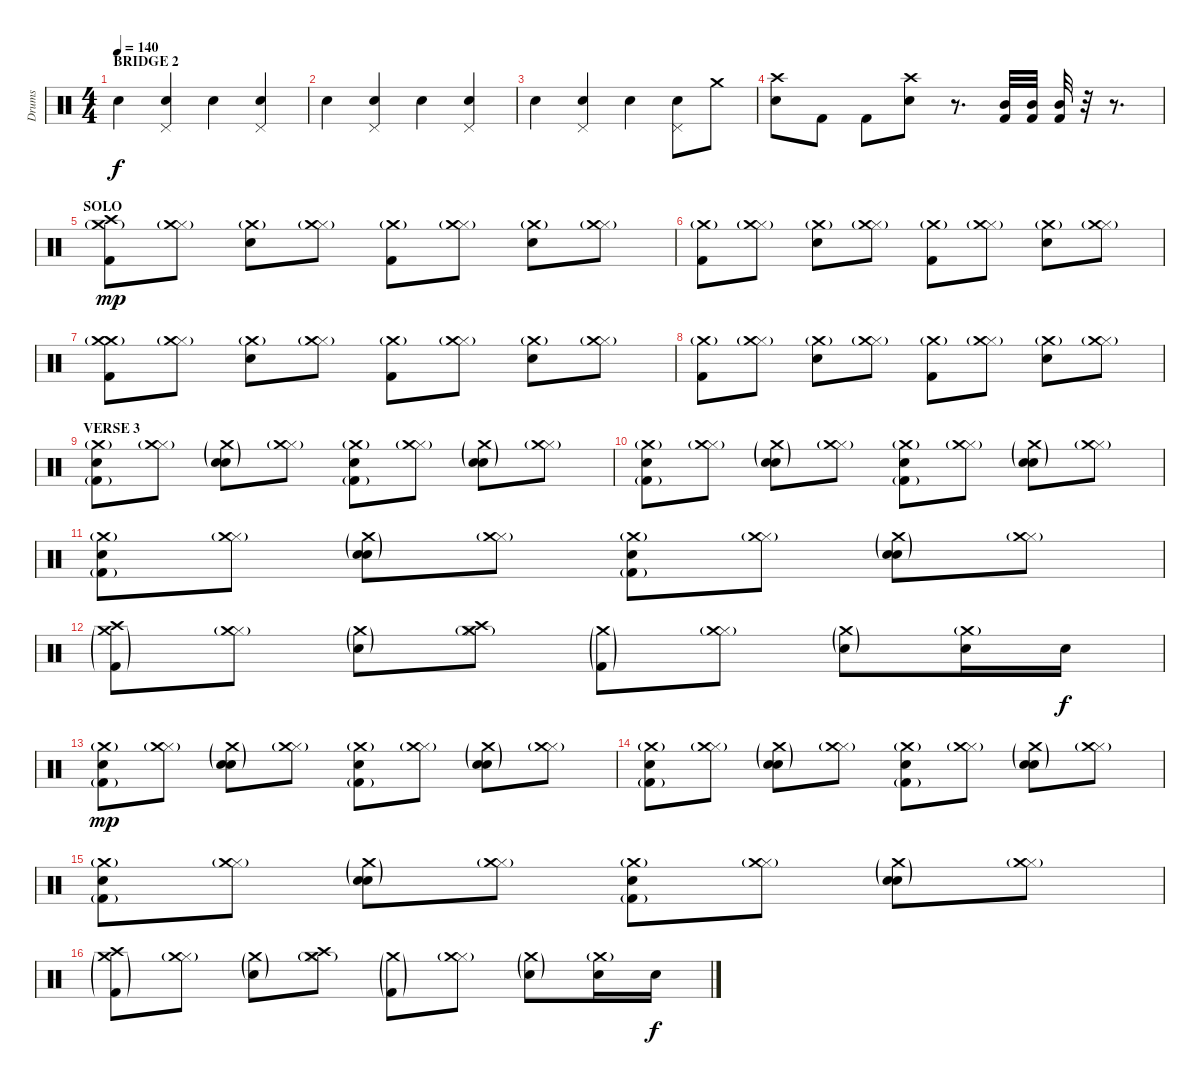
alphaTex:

\track ("Drums" "Drums") {instrument percussion}
\staff {score}
\articulation defaults
\ts (4 4)
\section ("" "BRIDGE 2")
\tempo 140
\clef neutral
\ks c "Hand Clap (hit)".4{dy f}
("Hand Clap (hit)" "Pedal Hi-Hat (hit)").4 "Hand Clap (hit)".4 ("Hand Clap (hit)" "Pedal Hi-Hat (hit)").4 |
"Hand Clap (hit)".4 ("Hand Clap (hit)" "Pedal Hi-Hat (hit)").4 "Hand Clap (hit)".4 ("Hand Clap (hit)" "Pedal Hi-Hat (hit)").4 |
"Hand Clap (hit)".4 ("Hand Clap (hit)" "Pedal Hi-Hat (hit)").4 "Hand Clap (hit)".4 ("Hand Clap (hit)" "Pedal Hi-Hat (hit)").8 "Crash medium (hit)".8 |
("Crash high (hit)" "Electric Snare (hit)").8 "Kick (hit) 2".8 "Kick (hit) 2".8 ("Crash high (hit)" "Electric Snare (hit)").8 r.8{d} ("Kick (hit) 2" "Mid Tom (hit)").32 ("Kick (hit) 2" "Mid Tom (hit)").32 ("Kick (hit) 2" "Mid Tom (hit)").32 r.32 r.8{d} |
\section ("" "SOLO")
("Kick (hit) 2" "Crash medium (hit)"{g} "Crash high (hit)").8{dy mp} ("Hi-Hat (closed)" "Crash medium (hit)"{g}).8 ("Electric Snare (hit)" "Crash medium (hit)"{g}).8 ("Hi-Hat (closed)" "Crash medium (hit)"{g}).8 ("Kick (hit) 2" "Crash medium (hit)"{g}).8 ("Hi-Hat (closed)" "Crash medium (hit)"{g}).8 ("Electric Snare (hit)" "Crash medium (hit)"{g}).8 ("Hi-Hat (closed)" "Crash medium (hit)"{g}).8 |
("Kick (hit) 2" "Crash medium (hit)"{g}).8 ("Hi-Hat (closed)" "Crash medium (hit)"{g}).8 ("Electric Snare (hit)" "Crash medium (hit)"{g}).8 ("Hi-Hat (closed)" "Crash medium (hit)"{g}).8 ("Kick (hit) 2" "Crash medium (hit)"{g}).8 ("Hi-Hat (closed)" "Crash medium (hit)"{g}).8 ("Electric Snare (hit)" "Crash medium (hit)"{g}).8 ("Hi-Hat (closed)" "Crash medium (hit)"{g}).8 |
("Kick (hit) 2" "Crash medium (hit)"{g} "Crash medium (hit)").8 ("Hi-Hat (closed)" "Crash medium (hit)"{g}).8 ("Electric Snare (hit)" "Crash medium (hit)"{g}).8 ("Hi-Hat (closed)" "Crash medium (hit)"{g}).8 ("Kick (hit) 2" "Crash medium (hit)"{g}).8 ("Hi-Hat (closed)" "Crash medium (hit)"{g}).8 ("Electric Snare (hit)" "Crash medium (hit)"{g}).8 ("Hi-Hat (closed)" "Crash medium (hit)"{g}).8 |
("Kick (hit) 2" "Crash medium (hit)"{g}).8 ("Hi-Hat (closed)" "Crash medium (hit)"{g}).8 ("Electric Snare (hit)" "Crash medium (hit)"{g}).8 ("Hi-Hat (closed)" "Crash medium (hit)"{g}).8 ("Kick (hit) 2" "Crash medium (hit)"{g}).8 ("Hi-Hat (closed)" "Crash medium (hit)"{g}).8 ("Electric Snare (hit)" "Crash medium (hit)"{g}).8 ("Hi-Hat (closed)" "Crash medium (hit)"{g}).8 |
\section ("" "VERSE 3")
("Kick (hit) 2"{g} "Hand Clap (hit)" "Crash medium (hit)"{g}).8 ("Hi-Hat (closed)" "Crash medium (hit)"{g}).8 ("Electric Snare (hit)"{g} "Hand Clap (hit)" "Crash medium (hit)"{g}).8 ("Hi-Hat (closed)" "Crash medium (hit)"{g}).8 ("Kick (hit) 2"{g} "Hand Clap (hit)" "Crash medium (hit)"{g}).8 ("Hi-Hat (closed)" "Crash medium (hit)"{g}).8 ("Electric Snare (hit)"{g} "Hand Clap (hit)" "Crash medium (hit)"{g}).8 ("Hi-Hat (closed)" "Crash medium (hit)"{g}).8 |
("Kick (hit) 2"{g} "Hand Clap (hit)" "Crash medium (hit)"{g}).8 ("Hi-Hat (closed)" "Crash medium (hit)"{g}).8 ("Electric Snare (hit)"{g} "Hand Clap (hit)" "Crash medium (hit)"{g}).8 ("Hi-Hat (closed)" "Crash medium (hit)"{g}).8 ("Kick (hit) 2"{g} "Hand Clap (hit)" "Crash medium (hit)"{g}).8 ("Hi-Hat (closed)" "Crash medium (hit)"{g}).8 ("Electric Snare (hit)"{g} "Hand Clap (hit)" "Crash medium (hit)"{g}).8 ("Hi-Hat (closed)" "Crash medium (hit)"{g}).8 |
("Kick (hit) 2"{g} "Hand Clap (hit)" "Crash medium (hit)"{g}).8 ("Hi-Hat (closed)" "Crash medium (hit)"{g}).8 ("Electric Snare (hit)"{g} "Hand Clap (hit)" "Crash medium (hit)"{g}).8 ("Hi-Hat (closed)" "Crash medium (hit)"{g}).8 ("Kick (hit) 2"{g} "Hand Clap (hit)" "Crash medium (hit)"{g}).8 ("Hi-Hat (closed)" "Crash medium (hit)"{g}).8 ("Electric Snare (hit)"{g} "Hand Clap (hit)" "Crash medium (hit)"{g}).8 ("Hi-Hat (closed)" "Crash medium (hit)"{g}).8 |
("Kick (hit) 2"{g} "Crash medium (hit)"{g} "Crash high (hit)").8 ("Hi-Hat (closed)" "Crash medium (hit)"{g}).8 ("Electric Snare (hit)"{g} "Crash medium (hit)"{g}).8 ("Hi-Hat (closed)" "Crash medium (hit)"{g} "Crash high (hit)").8 ("Kick (hit) 2"{g} "Crash medium (hit)"{g}).8 ("Hi-Hat (closed)" "Crash medium (hit)"{g}).8 ("Electric Snare (hit)"{g} "Crash medium (hit)"{g}).8 ("Electric Snare (hit)" "Crash medium (hit)"{g}).16 "Electric Snare (hit)".16{dy f} |
("Kick (hit) 2"{g} "Hand Clap (hit)" "Crash medium (hit)"{g}).8{dy mp} ("Hi-Hat (closed)" "Crash medium (hit)"{g}).8 ("Electric Snare (hit)"{g} "Hand Clap (hit)" "Crash medium (hit)"{g}).8 ("Hi-Hat (closed)" "Crash medium (hit)"{g}).8 ("Kick (hit) 2"{g} "Hand Clap (hit)" "Crash medium (hit)"{g}).8 ("Hi-Hat (closed)" "Crash medium (hit)"{g}).8 ("Electric Snare (hit)"{g} "Hand Clap (hit)" "Crash medium (hit)"{g}).8 ("Hi-Hat (closed)" "Crash medium (hit)"{g}).8 |
("Kick (hit) 2"{g} "Hand Clap (hit)" "Crash medium (hit)"{g}).8 ("Hi-Hat (closed)" "Crash medium (hit)"{g}).8 ("Electric Snare (hit)"{g} "Hand Clap (hit)" "Crash medium (hit)"{g}).8 ("Hi-Hat (closed)" "Crash medium (hit)"{g}).8 ("Kick (hit) 2"{g} "Hand Clap (hit)" "Crash medium (hit)"{g}).8 ("Hi-Hat (closed)" "Crash medium (hit)"{g}).8 ("Electric Snare (hit)"{g} "Hand Clap (hit)" "Crash medium (hit)"{g}).8 ("Hi-Hat (closed)" "Crash medium (hit)"{g}).8 |
("Kick (hit) 2"{g} "Hand Clap (hit)" "Crash medium (hit)"{g}).8 ("Hi-Hat (closed)" "Crash medium (hit)"{g}).8 ("Electric Snare (hit)"{g} "Hand Clap (hit)" "Crash medium (hit)"{g}).8 ("Hi-Hat (closed)" "Crash medium (hit)"{g}).8 ("Kick (hit) 2"{g} "Hand Clap (hit)" "Crash medium (hit)"{g}).8 ("Hi-Hat (closed)" "Crash medium (hit)"{g}).8 ("Electric Snare (hit)"{g} "Hand Clap (hit)" "Crash medium (hit)"{g}).8 ("Hi-Hat (closed)" "Crash medium (hit)"{g}).8 |
("Kick (hit) 2"{g} "Crash medium (hit)"{g} "Crash high (hit)").8 ("Hi-Hat (closed)" "Crash medium (hit)"{g}).8 ("Electric Snare (hit)"{g} "Crash medium (hit)"{g}).8 ("Hi-Hat (closed)" "Crash medium (hit)"{g} "Crash high (hit)").8 ("Kick (hit) 2"{g} "Crash medium (hit)"{g}).8 ("Hi-Hat (closed)" "Crash medium (hit)"{g}).8 ("Electric Snare (hit)"{g} "Crash medium (hit)"{g}).8 ("Electric Snare (hit)" "Crash medium (hit)"{g}).16 "Electric Snare (hit)".16{dy f}
